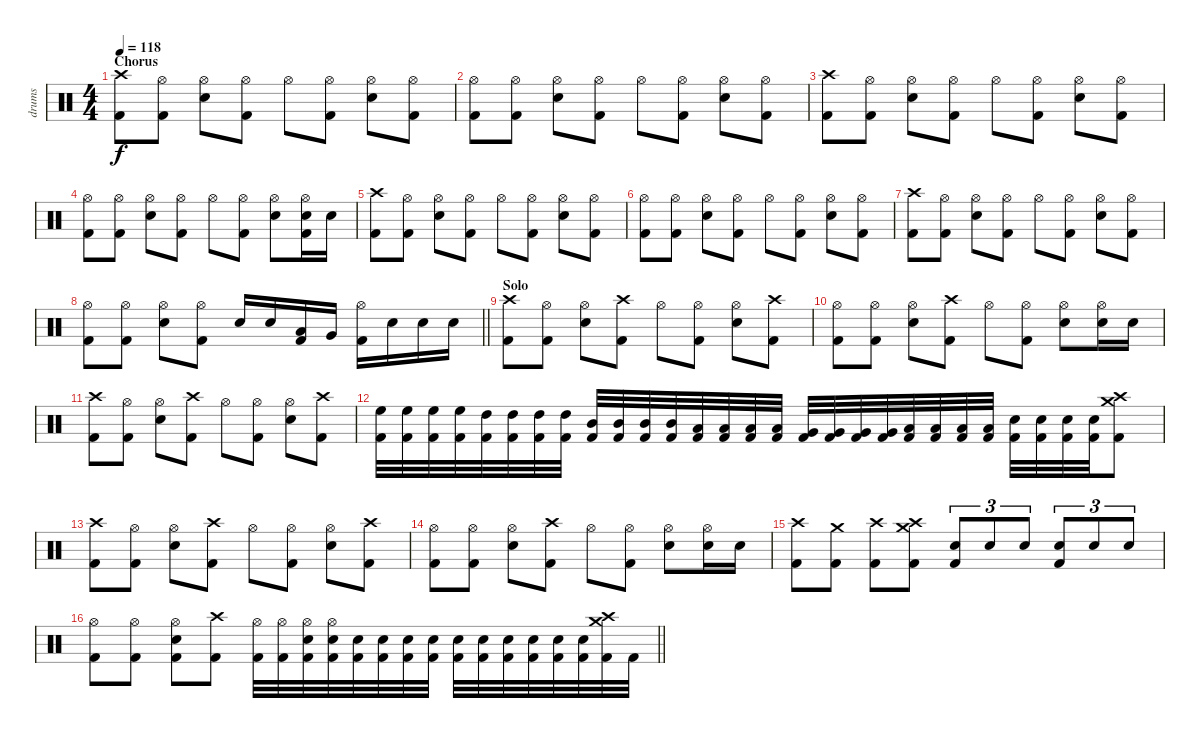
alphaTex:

\track ("drums" "drums") {instrument percussion}
\staff {score}
\articulation defaults
\ts (4 4)
\section ("" "Chorus")
\tempo 118
\clef neutral
\ks c
("Crash high (hit)" "Kick (hit) 2").8{dy f} ("Hi-Hat (open)" "Kick (hit) 2").8 ("Hi-Hat (open)" "Electric Snare (hit)").8 ("Hi-Hat (open)" "Kick (hit) 2").8 "Hi-Hat (open)".8 ("Hi-Hat (open)" "Kick (hit) 2").8 ("Hi-Hat (open)" "Electric Snare (hit)").8 ("Hi-Hat (open)" "Kick (hit) 2").8 |
("Hi-Hat (open)" "Kick (hit) 2").8 ("Hi-Hat (open)" "Kick (hit) 2").8 ("Hi-Hat (open)" "Electric Snare (hit)").8 ("Hi-Hat (open)" "Kick (hit) 2").8 "Hi-Hat (open)".8 ("Hi-Hat (open)" "Kick (hit) 2").8 ("Hi-Hat (open)" "Electric Snare (hit)").8 ("Hi-Hat (open)" "Kick (hit) 2").8 |
("Crash high (hit)" "Kick (hit) 2").8 ("Hi-Hat (open)" "Kick (hit) 2").8 ("Hi-Hat (open)" "Electric Snare (hit)").8 ("Hi-Hat (open)" "Kick (hit) 2").8 "Hi-Hat (open)".8 ("Hi-Hat (open)" "Kick (hit) 2").8 ("Hi-Hat (open)" "Electric Snare (hit)").8 ("Hi-Hat (open)" "Kick (hit) 2").8 |
("Hi-Hat (open)" "Kick (hit) 2").8 ("Hi-Hat (open)" "Kick (hit) 2").8 ("Hi-Hat (open)" "Electric Snare (hit)").8 ("Hi-Hat (open)" "Kick (hit) 2").8 "Hi-Hat (open)".8 ("Hi-Hat (open)" "Kick (hit) 2").8 ("Hi-Hat (open)" "Electric Snare (hit)").8 ("Hi-Hat (open)" "Electric Snare (hit)" "Kick (hit) 2").16 "Electric Snare (hit)".16 |
("Crash high (hit)" "Kick (hit) 2").8 ("Hi-Hat (open)" "Kick (hit) 2").8 ("Hi-Hat (open)" "Electric Snare (hit)").8 ("Hi-Hat (open)" "Kick (hit) 2").8 "Hi-Hat (open)".8 ("Hi-Hat (open)" "Kick (hit) 2").8 ("Hi-Hat (open)" "Electric Snare (hit)").8 ("Hi-Hat (open)" "Kick (hit) 2").8 |
("Hi-Hat (open)" "Kick (hit) 2").8 ("Hi-Hat (open)" "Kick (hit) 2").8 ("Hi-Hat (open)" "Electric Snare (hit)").8 ("Hi-Hat (open)" "Kick (hit) 2").8 "Hi-Hat (open)".8 ("Hi-Hat (open)" "Kick (hit) 2").8 ("Hi-Hat (open)" "Electric Snare (hit)").8 ("Hi-Hat (open)" "Kick (hit) 2").8 |
("Crash high (hit)" "Kick (hit) 2").8 ("Hi-Hat (open)" "Kick (hit) 2").8 ("Hi-Hat (open)" "Electric Snare (hit)").8 ("Hi-Hat (open)" "Kick (hit) 2").8 "Hi-Hat (open)".8 ("Hi-Hat (open)" "Kick (hit) 2").8 ("Hi-Hat (open)" "Electric Snare (hit)").8 ("Hi-Hat (open)" "Kick (hit) 2").8 |
\barLineRight lightlight
("Hi-Hat (open)" "Kick (hit) 2").8 ("Hi-Hat (open)" "Kick (hit) 2").8 ("Hi-Hat (open)" "Electric Snare (hit)").8 ("Hi-Hat (open)" "Kick (hit) 2").8 "Electric Snare (hit)".16 "Electric Snare (hit)".16 ("Low Tom (hit)" "Kick (hit) 2").16 "Very Low Tom (hit)".16 ("Hi-Hat (open)" "Kick (hit) 2").16 "Electric Snare (hit)".16 "Electric Snare (hit)".16 "Electric Snare (hit)".16 |
\section ("" "Solo")
("Crash high (hit)" "Kick (hit) 2").8 ("Hi-Hat (open)" "Kick (hit) 2").8 ("Hi-Hat (open)" "Electric Snare (hit)").8 ("Crash high (hit)" "Kick (hit) 2").8 "Hi-Hat (open)".8 ("Hi-Hat (open)" "Kick (hit) 2").8 ("Hi-Hat (open)" "Electric Snare (hit)").8 ("Crash high (hit)" "Kick (hit) 2").8 |
("Hi-Hat (open)" "Kick (hit) 2").8 ("Hi-Hat (open)" "Kick (hit) 2").8 ("Hi-Hat (open)" "Electric Snare (hit)").8 ("Crash high (hit)" "Kick (hit) 2").8 "Hi-Hat (open)".8 ("Hi-Hat (open)" "Kick (hit) 2").8 ("Hi-Hat (open)" "Electric Snare (hit)").8 ("Hi-Hat (open)" "Electric Snare (hit)").16 "Electric Snare (hit)".16 |
("Crash high (hit)" "Kick (hit) 2").8 ("Hi-Hat (open)" "Kick (hit) 2").8 ("Hi-Hat (open)" "Electric Snare (hit)").8 ("Crash high (hit)" "Kick (hit) 2").8 "Hi-Hat (open)".8 ("Hi-Hat (open)" "Kick (hit) 2").8 ("Hi-Hat (open)" "Electric Snare (hit)").8 ("Crash high (hit)" "Kick (hit) 2").8 |
("High Floor Tom (hit)" "Kick (hit) 2").32 ("High Floor Tom (hit)" "Kick (hit) 2").32 ("High Floor Tom (hit)" "Kick (hit) 2").32 ("High Floor Tom (hit)" "Kick (hit) 2").32 ("High Tom (hit)" "Kick (hit) 2").32 ("High Tom (hit)" "Kick (hit) 2").32 ("High Tom (hit)" "Kick (hit) 2").32 ("High Tom (hit)" "Kick (hit) 2").32 ("Mid Tom (hit)" "Kick (hit) 2").32 ("Mid Tom (hit)" "Kick (hit) 2").32 ("Mid Tom (hit)" "Kick (hit) 2").32 ("Mid Tom (hit)" "Kick (hit) 2").32 ("Low Tom (hit)" "Kick (hit) 2").32 ("Low Tom (hit)" "Kick (hit) 2").32 ("Low Tom (hit)" "Kick (hit) 2").32 ("Low Tom (hit)" "Kick (hit) 2").32 ("Very Low Tom (hit)" "Kick (hit) 2").32 ("Very Low Tom (hit)" "Kick (hit) 2").32 ("Very Low Tom (hit)" "Kick (hit) 2").32 ("Very Low Tom (hit)" "Kick (hit) 2").32 ("Low Floor Tom (hit)" "Kick (hit) 2").32 ("Low Floor Tom (hit)" "Kick (hit) 2").32 ("Low Floor Tom (hit)" "Kick (hit) 2").32 ("Low Floor Tom (hit)" "Kick (hit) 2").32 ("Electric Snare (hit)" "Kick (hit) 2").32 ("Electric Snare (hit)" "Kick (hit) 2").32 ("Electric Snare (hit)" "Kick (hit) 2").32 ("Electric Snare (hit)" "Kick (hit) 2").32 ("Crash high (hit)" "Crash medium (hit)" "Kick (hit) 2").8 |
("Crash high (hit)" "Kick (hit) 2").8 ("Hi-Hat (open)" "Kick (hit) 2").8 ("Hi-Hat (open)" "Electric Snare (hit)").8 ("Crash high (hit)" "Kick (hit) 2").8 "Hi-Hat (open)".8 ("Hi-Hat (open)" "Kick (hit) 2").8 ("Hi-Hat (open)" "Electric Snare (hit)").8 ("Crash high (hit)" "Kick (hit) 2").8 |
("Hi-Hat (open)" "Kick (hit) 2").8 ("Hi-Hat (open)" "Kick (hit) 2").8 ("Hi-Hat (open)" "Electric Snare (hit)").8 ("Crash high (hit)" "Kick (hit) 2").8 "Hi-Hat (open)".8 ("Hi-Hat (open)" "Kick (hit) 2").8 ("Hi-Hat (open)" "Electric Snare (hit)").8 ("Hi-Hat (open)" "Electric Snare (hit)").16 "Electric Snare (hit)".16 |
("Crash high (hit)" "Kick (hit) 2").8 ("Crash medium (hit)" "Kick (hit) 2").8 ("Crash high (hit)" "Kick (hit) 2").8 ("Crash medium (hit)" "Crash high (hit)" "Kick (hit) 2").8 ("Electric Snare (hit)" "Kick (hit) 2").8{tu (3 2)} "Electric Snare (hit)".8{tu (3 2)} "Electric Snare (hit)".8{tu (3 2)} ("Electric Snare (hit)" "Kick (hit) 2").8{tu (3 2)} "Electric Snare (hit)".8{tu (3 2)} "Electric Snare (hit)".8{tu (3 2)} |
\barLineRight lightlight
("Hi-Hat (open)" "Kick (hit) 2").8 ("Hi-Hat (open)" "Kick (hit) 2").8 ("Hi-Hat (open)" "Electric Snare (hit)" "Kick (hit) 2").8 ("Crash high (hit)" "Kick (hit) 2").8 ("Hi-Hat (open)" "Kick (hit) 2").32 ("Hi-Hat (open)" "Kick (hit) 2").32 ("Hi-Hat (open)" "Electric Snare (hit)" "Kick (hit) 2").32 ("Hi-Hat (open)" "Electric Snare (hit)" "Kick (hit) 2").32 ("Electric Snare (hit)" "Kick (hit) 2").32 ("Electric Snare (hit)" "Kick (hit) 2").32 ("Electric Snare (hit)" "Kick (hit) 2").32 ("Electric Snare (hit)" "Kick (hit) 2").32 ("Electric Snare (hit)" "Kick (hit) 2").32 ("Electric Snare (hit)" "Kick (hit) 2").32 ("Electric Snare (hit)" "Kick (hit) 2").32 ("Electric Snare (hit)" "Kick (hit) 2").32 ("Electric Snare (hit)" "Kick (hit) 2").32 ("Electric Snare (hit)" "Kick (hit) 2").32 ("Crash medium (hit)" "Crash high (hit)" "Kick (hit) 2").32 "Kick (hit) 2".32
